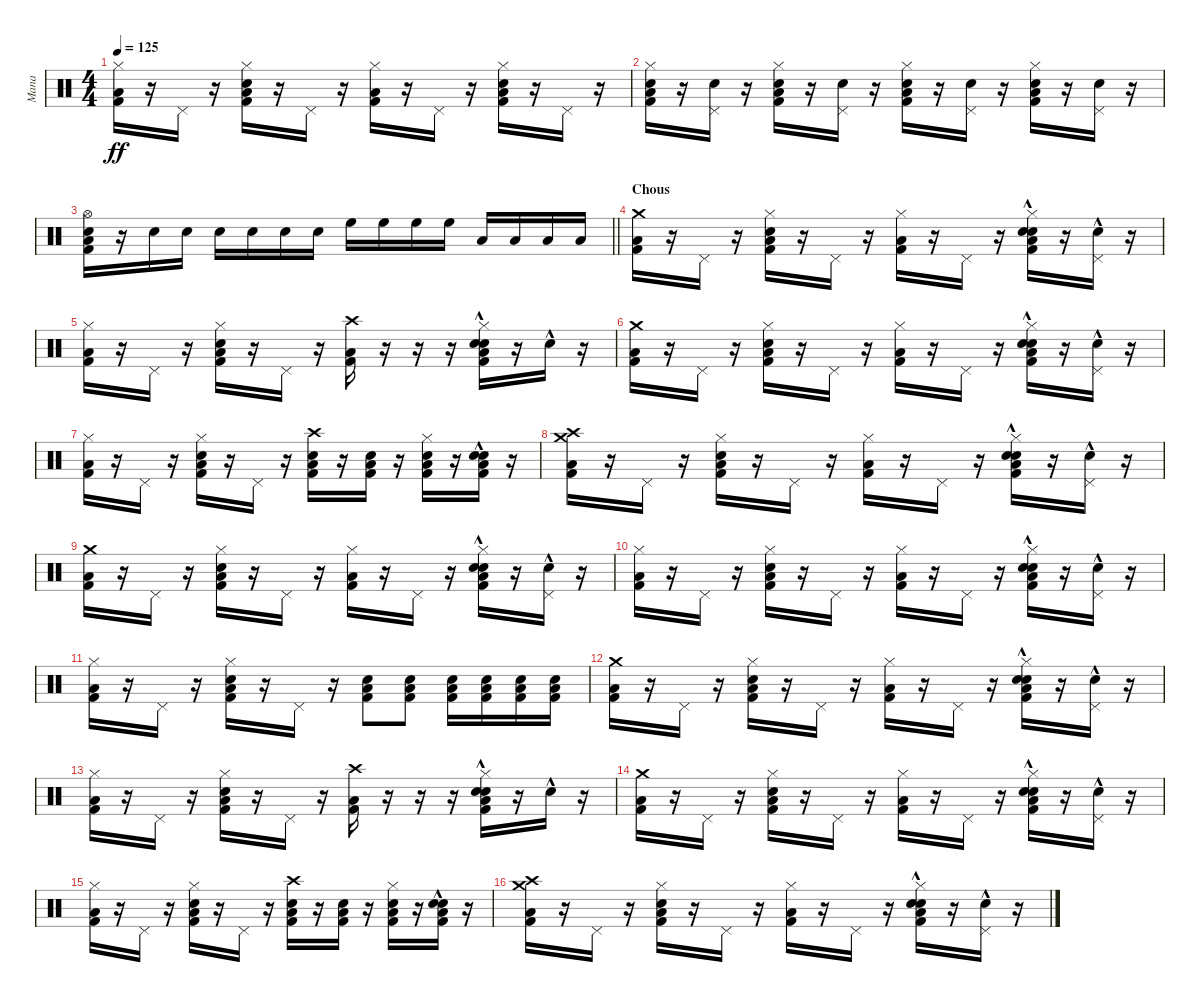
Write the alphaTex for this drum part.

\track ("Mana" "Mana") {instrument percussion}
\staff {score}
\articulation defaults
\ts (4 4)
\tempo 125
\clef neutral
\ks c
("Hi-Hat (closed)" "Low Floor Tom (hit)" "Kick (hit) 2").16{dy ff} r.16 "Pedal Hi-Hat (hit)".16 r.16 ("Hi-Hat (closed)" "Snare (hit) 2" "Low Floor Tom (hit)" "Kick (hit) 2").16 r.16 "Pedal Hi-Hat (hit)".16 r.16 ("Hi-Hat (closed)" "Low Floor Tom (hit)" "Kick (hit) 2").16 r.16 "Pedal Hi-Hat (hit)".16 r.16 ("Hi-Hat (closed)" "Snare (hit) 2" "Low Floor Tom (hit)" "Kick (hit) 2").16 r.16 "Pedal Hi-Hat (hit)".16 r.16 |
("Hi-Hat (closed)" "Snare (hit) 2" "Low Floor Tom (hit)" "Kick (hit) 2").16 r.16 ("Pedal Hi-Hat (hit)" "Snare (hit) 2").16 r.16 ("Hi-Hat (closed)" "Snare (hit) 2" "Low Floor Tom (hit)" "Kick (hit) 2").16 r.16 ("Pedal Hi-Hat (hit)" "Snare (hit) 2").16 r.16 ("Hi-Hat (closed)" "Snare (hit) 2" "Low Floor Tom (hit)" "Kick (hit) 2").16 r.16 ("Pedal Hi-Hat (hit)" "Snare (hit) 2").16 r.16 ("Hi-Hat (closed)" "Snare (hit) 2" "Low Floor Tom (hit)" "Kick (hit) 2").16 r.16 ("Pedal Hi-Hat (hit)" "Snare (hit) 2").16 r.16 |
\barLineRight lightlight
("Hi-Hat (open)" "Snare (hit) 2" "Low Floor Tom (hit)" "Kick (hit) 2").16 r.16 "Snare (hit) 2".16 "Snare (hit) 2".16 "Snare (hit) 2".16 "Snare (hit) 2".16 "Snare (hit) 2".16 "Snare (hit) 2".16 "High Floor Tom (hit)".16 "High Floor Tom (hit)".16 "High Floor Tom (hit)".16 "High Floor Tom (hit)".16 "Low Floor Tom (hit)".16 "Low Floor Tom (hit)".16 "Low Floor Tom (hit)".16 "Low Floor Tom (hit)".16 |
\section ("" "Chous")
("Crash medium (hit)" "Low Floor Tom (hit)" "Kick (hit) 2").16 r.16 "Pedal Hi-Hat (hit)".16 r.16 ("Hi-Hat (closed)" "Snare (hit) 2" "Low Floor Tom (hit)" "Kick (hit) 2").16 r.16 "Pedal Hi-Hat (hit)".16 r.16 ("Hi-Hat (closed)" "Low Floor Tom (hit)" "Kick (hit) 2").16 r.16 "Pedal Hi-Hat (hit)".16 r.16 ("Hand Clap (hit)"{hac} "Hi-Hat (closed)" "Snare (hit) 2" "Low Floor Tom (hit)" "Kick (hit) 2").16 r.16 ("Hand Clap (hit)"{hac} "Pedal Hi-Hat (hit)").16 r.16 |
("Hi-Hat (closed)" "Low Floor Tom (hit)" "Kick (hit) 2").16 r.16 "Pedal Hi-Hat (hit)".16 r.16 ("Hi-Hat (closed)" "Snare (hit) 2" "Low Floor Tom (hit)" "Kick (hit) 2").16 r.16 "Pedal Hi-Hat (hit)".16 r.16 ("Crash high (hit)" "Low Floor Tom (hit)" "Kick (hit) 2").16 r.16 r.16 r.16 ("Hand Clap (hit)"{hac} "Hi-Hat (closed)" "Snare (hit) 2" "Low Floor Tom (hit)" "Kick (hit) 2").16 r.16 "Hand Clap (hit)"{hac}.16 r.16 |
("Crash medium (hit)" "Low Floor Tom (hit)" "Kick (hit) 2").16 r.16 "Pedal Hi-Hat (hit)".16 r.16 ("Hi-Hat (closed)" "Snare (hit) 2" "Low Floor Tom (hit)" "Kick (hit) 2").16 r.16 "Pedal Hi-Hat (hit)".16 r.16 ("Hi-Hat (closed)" "Low Floor Tom (hit)" "Kick (hit) 2").16 r.16 "Pedal Hi-Hat (hit)".16 r.16 ("Hand Clap (hit)"{hac} "Hi-Hat (closed)" "Snare (hit) 2" "Low Floor Tom (hit)" "Kick (hit) 2").16 r.16 ("Hand Clap (hit)"{hac} "Pedal Hi-Hat (hit)").16 r.16 |
("Hi-Hat (closed)" "Low Floor Tom (hit)" "Kick (hit) 2").16 r.16 "Pedal Hi-Hat (hit)".16 r.16 ("Hi-Hat (closed)" "Snare (hit) 2" "Low Floor Tom (hit)" "Kick (hit) 2").16 r.16 "Pedal Hi-Hat (hit)".16 r.16 ("Crash high (hit)" "Snare (hit) 2" "Low Floor Tom (hit)" "Kick (hit) 2").16 r.16 ("Snare (hit) 2" "Low Floor Tom (hit)" "Kick (hit) 2").16 r.16 ("Hand Clap (hit)" "Hi-Hat (closed)" "Low Floor Tom (hit)" "Kick (hit) 2").16 r.16 ("Hand Clap (hit)"{hac} "Snare (hit) 2" "Low Floor Tom (hit)" "Kick (hit) 2").16 r.16 |
("Crash medium (hit)" "Crash high (hit)" "Low Floor Tom (hit)" "Kick (hit) 2").16 r.16 "Pedal Hi-Hat (hit)".16 r.16 ("Hi-Hat (closed)" "Snare (hit) 2" "Low Floor Tom (hit)" "Kick (hit) 2").16 r.16 "Pedal Hi-Hat (hit)".16 r.16 ("Hi-Hat (closed)" "Low Floor Tom (hit)" "Kick (hit) 2").16 r.16 "Pedal Hi-Hat (hit)".16 r.16 ("Hand Clap (hit)"{hac} "Hi-Hat (closed)" "Snare (hit) 2" "Low Floor Tom (hit)" "Kick (hit) 2").16 r.16 ("Hand Clap (hit)"{hac} "Pedal Hi-Hat (hit)").16 r.16 |
("Crash medium (hit)" "Low Floor Tom (hit)" "Kick (hit) 2").16 r.16 "Pedal Hi-Hat (hit)".16 r.16 ("Hi-Hat (closed)" "Snare (hit) 2" "Low Floor Tom (hit)" "Kick (hit) 2").16 r.16 "Pedal Hi-Hat (hit)".16 r.16 ("Hi-Hat (closed)" "Low Floor Tom (hit)" "Kick (hit) 2").16 r.16 "Pedal Hi-Hat (hit)".16 r.16 ("Hand Clap (hit)"{hac} "Hi-Hat (closed)" "Snare (hit) 2" "Low Floor Tom (hit)" "Kick (hit) 2").16 r.16 ("Hand Clap (hit)"{hac} "Pedal Hi-Hat (hit)").16 r.16 |
("Hi-Hat (closed)" "Low Floor Tom (hit)" "Kick (hit) 2").16 r.16 "Pedal Hi-Hat (hit)".16 r.16 ("Hi-Hat (closed)" "Snare (hit) 2" "Low Floor Tom (hit)" "Kick (hit) 2").16 r.16 "Pedal Hi-Hat (hit)".16 r.16 ("Hi-Hat (closed)" "Low Floor Tom (hit)" "Kick (hit) 2").16 r.16 "Pedal Hi-Hat (hit)".16 r.16 ("Hand Clap (hit)"{hac} "Hi-Hat (closed)" "Snare (hit) 2" "Low Floor Tom (hit)" "Kick (hit) 2").16 r.16 ("Hand Clap (hit)"{hac} "Pedal Hi-Hat (hit)").16 r.16 |
("Hi-Hat (closed)" "Low Floor Tom (hit)" "Kick (hit) 2").16 r.16 "Pedal Hi-Hat (hit)".16 r.16 ("Hi-Hat (closed)" "Snare (hit) 2" "Low Floor Tom (hit)" "Kick (hit) 2").16 r.16 "Pedal Hi-Hat (hit)".16 r.16 ("Low Floor Tom (hit)" "Snare (hit) 2" "Kick (hit) 2").8 ("Low Floor Tom (hit)" "Snare (hit) 2" "Kick (hit) 2").8 ("Low Floor Tom (hit)" "Snare (hit) 2" "Kick (hit) 2").16 ("Low Floor Tom (hit)" "Snare (hit) 2" "Kick (hit) 2").16 ("Low Floor Tom (hit)" "Snare (hit) 2" "Kick (hit) 2").16 ("Low Floor Tom (hit)" "Snare (hit) 2" "Kick (hit) 2").16 |
("Crash medium (hit)" "Low Floor Tom (hit)" "Kick (hit) 2").16 r.16 "Pedal Hi-Hat (hit)".16 r.16 ("Hi-Hat (closed)" "Snare (hit) 2" "Low Floor Tom (hit)" "Kick (hit) 2").16 r.16 "Pedal Hi-Hat (hit)".16 r.16 ("Hi-Hat (closed)" "Low Floor Tom (hit)" "Kick (hit) 2").16 r.16 "Pedal Hi-Hat (hit)".16 r.16 ("Hand Clap (hit)"{hac} "Hi-Hat (closed)" "Snare (hit) 2" "Low Floor Tom (hit)" "Kick (hit) 2").16 r.16 ("Hand Clap (hit)"{hac} "Pedal Hi-Hat (hit)").16 r.16 |
("Hi-Hat (closed)" "Low Floor Tom (hit)" "Kick (hit) 2").16 r.16 "Pedal Hi-Hat (hit)".16 r.16 ("Hi-Hat (closed)" "Snare (hit) 2" "Low Floor Tom (hit)" "Kick (hit) 2").16 r.16 "Pedal Hi-Hat (hit)".16 r.16 ("Crash high (hit)" "Low Floor Tom (hit)" "Kick (hit) 2").16 r.16 r.16 r.16 ("Hand Clap (hit)"{hac} "Hi-Hat (closed)" "Snare (hit) 2" "Low Floor Tom (hit)" "Kick (hit) 2").16 r.16 "Hand Clap (hit)"{hac}.16 r.16 |
("Crash medium (hit)" "Low Floor Tom (hit)" "Kick (hit) 2").16 r.16 "Pedal Hi-Hat (hit)".16 r.16 ("Hi-Hat (closed)" "Snare (hit) 2" "Low Floor Tom (hit)" "Kick (hit) 2").16 r.16 "Pedal Hi-Hat (hit)".16 r.16 ("Hi-Hat (closed)" "Low Floor Tom (hit)" "Kick (hit) 2").16 r.16 "Pedal Hi-Hat (hit)".16 r.16 ("Hand Clap (hit)"{hac} "Hi-Hat (closed)" "Snare (hit) 2" "Low Floor Tom (hit)" "Kick (hit) 2").16 r.16 ("Hand Clap (hit)"{hac} "Pedal Hi-Hat (hit)").16 r.16 |
("Hi-Hat (closed)" "Low Floor Tom (hit)" "Kick (hit) 2").16 r.16 "Pedal Hi-Hat (hit)".16 r.16 ("Hi-Hat (closed)" "Snare (hit) 2" "Low Floor Tom (hit)" "Kick (hit) 2").16 r.16 "Pedal Hi-Hat (hit)".16 r.16 ("Crash high (hit)" "Snare (hit) 2" "Low Floor Tom (hit)" "Kick (hit) 2").16 r.16 ("Snare (hit) 2" "Low Floor Tom (hit)" "Kick (hit) 2").16 r.16 ("Hand Clap (hit)" "Hi-Hat (closed)" "Low Floor Tom (hit)" "Kick (hit) 2").16 r.16 ("Hand Clap (hit)"{hac} "Snare (hit) 2" "Low Floor Tom (hit)" "Kick (hit) 2").16 r.16 |
("Crash medium (hit)" "Crash high (hit)" "Low Floor Tom (hit)" "Kick (hit) 2").16 r.16 "Pedal Hi-Hat (hit)".16 r.16 ("Hi-Hat (closed)" "Snare (hit) 2" "Low Floor Tom (hit)" "Kick (hit) 2").16 r.16 "Pedal Hi-Hat (hit)".16 r.16 ("Hi-Hat (closed)" "Low Floor Tom (hit)" "Kick (hit) 2").16 r.16 "Pedal Hi-Hat (hit)".16 r.16 ("Hand Clap (hit)"{hac} "Hi-Hat (closed)" "Snare (hit) 2" "Low Floor Tom (hit)" "Kick (hit) 2").16 r.16 ("Hand Clap (hit)"{hac} "Pedal Hi-Hat (hit)").16 r.16
